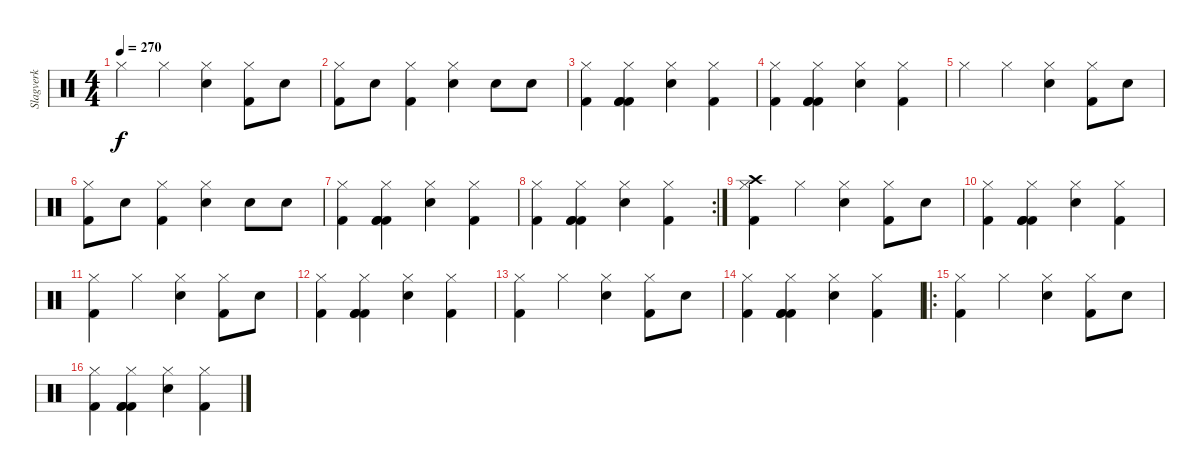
\track ("Slagverk" "Slagverk") {instrument percussion}
\staff {score}
\articulation defaults
\ts (4 4)
\tempo 270
\clef neutral
\ks c "Hi-Hat (closed)".4{dy f} "Hi-Hat (closed)".4
("Hi-Hat (closed)" "Electric Snare (hit)").4 ("Hi-Hat (closed)" "Kick (hit) 2").8 "Electric Snare (hit)".8 |
("Hi-Hat (closed)" "Kick (hit) 2").8 "Electric Snare (hit)".8 ("Hi-Hat (closed)" "Kick (hit) 2").4 ("Hi-Hat (closed)" "Electric Snare (hit)").4 "Electric Snare (hit)".8 "Electric Snare (hit)".8 |
("Hi-Hat (closed)" "Kick (hit) 2").4 ("Hi-Hat (closed)" "Kick (hit) 2" "Kick (hit) 2" "Kick (hit) 2").4 ("Hi-Hat (closed)" "Electric Snare (hit)").4 ("Hi-Hat (closed)" "Kick (hit) 2").4 |
("Hi-Hat (closed)" "Kick (hit) 2").4 ("Hi-Hat (closed)" "Kick (hit) 2" "Kick (hit) 2" "Kick (hit) 2").4 ("Hi-Hat (closed)" "Electric Snare (hit)").4 ("Hi-Hat (closed)" "Kick (hit) 2").4 |
"Hi-Hat (closed)".4 "Hi-Hat (closed)".4 ("Hi-Hat (closed)" "Electric Snare (hit)").4 ("Hi-Hat (closed)" "Kick (hit) 2").8 "Electric Snare (hit)".8 |
("Hi-Hat (closed)" "Kick (hit) 2").8 "Electric Snare (hit)".8 ("Hi-Hat (closed)" "Kick (hit) 2").4 ("Hi-Hat (closed)" "Electric Snare (hit)").4 "Electric Snare (hit)".8 "Electric Snare (hit)".8 |
("Hi-Hat (closed)" "Kick (hit) 2").4 ("Hi-Hat (closed)" "Kick (hit) 2" "Kick (hit) 2" "Kick (hit) 2").4 ("Hi-Hat (closed)" "Electric Snare (hit)").4 ("Hi-Hat (closed)" "Kick (hit) 2").4 |
\rc 2
("Hi-Hat (closed)" "Kick (hit) 2").4 ("Hi-Hat (closed)" "Kick (hit) 2" "Kick (hit) 2" "Kick (hit) 2").4 ("Hi-Hat (closed)" "Electric Snare (hit)").4 ("Hi-Hat (closed)" "Kick (hit) 2").4 |
("Hi-Hat (closed)" "Kick (hit) 2" "Crash high (hit)").4 "Hi-Hat (closed)".4 ("Hi-Hat (closed)" "Electric Snare (hit)").4 ("Hi-Hat (closed)" "Kick (hit) 2").8 "Electric Snare (hit)".8 |
("Hi-Hat (closed)" "Kick (hit) 2").4 ("Hi-Hat (closed)" "Kick (hit) 2" "Kick (hit) 2" "Kick (hit) 2").4 ("Hi-Hat (closed)" "Electric Snare (hit)").4 ("Hi-Hat (closed)" "Kick (hit) 2").4 |
("Hi-Hat (closed)" "Kick (hit) 2").4 "Hi-Hat (closed)".4 ("Hi-Hat (closed)" "Electric Snare (hit)").4 ("Hi-Hat (closed)" "Kick (hit) 2").8 "Electric Snare (hit)".8 |
("Hi-Hat (closed)" "Kick (hit) 2").4 ("Hi-Hat (closed)" "Kick (hit) 2" "Kick (hit) 2" "Kick (hit) 2").4 ("Hi-Hat (closed)" "Electric Snare (hit)").4 ("Hi-Hat (closed)" "Kick (hit) 2").4 |
("Hi-Hat (closed)" "Kick (hit) 2").4 "Hi-Hat (closed)".4 ("Hi-Hat (closed)" "Electric Snare (hit)").4 ("Hi-Hat (closed)" "Kick (hit) 2").8 "Electric Snare (hit)".8 |
("Hi-Hat (closed)" "Kick (hit) 2").4 ("Hi-Hat (closed)" "Kick (hit) 2" "Kick (hit) 2" "Kick (hit) 2").4 ("Hi-Hat (closed)" "Electric Snare (hit)").4 ("Hi-Hat (closed)" "Kick (hit) 2").4 |
\ro
("Hi-Hat (closed)" "Kick (hit) 2").4 "Hi-Hat (closed)".4 ("Hi-Hat (closed)" "Electric Snare (hit)").4 ("Hi-Hat (closed)" "Kick (hit) 2").8 "Electric Snare (hit)".8 |
("Hi-Hat (closed)" "Kick (hit) 2").4 ("Hi-Hat (closed)" "Kick (hit) 2" "Kick (hit) 2" "Kick (hit) 2").4 ("Hi-Hat (closed)" "Electric Snare (hit)").4 ("Hi-Hat (closed)" "Kick (hit) 2").4
